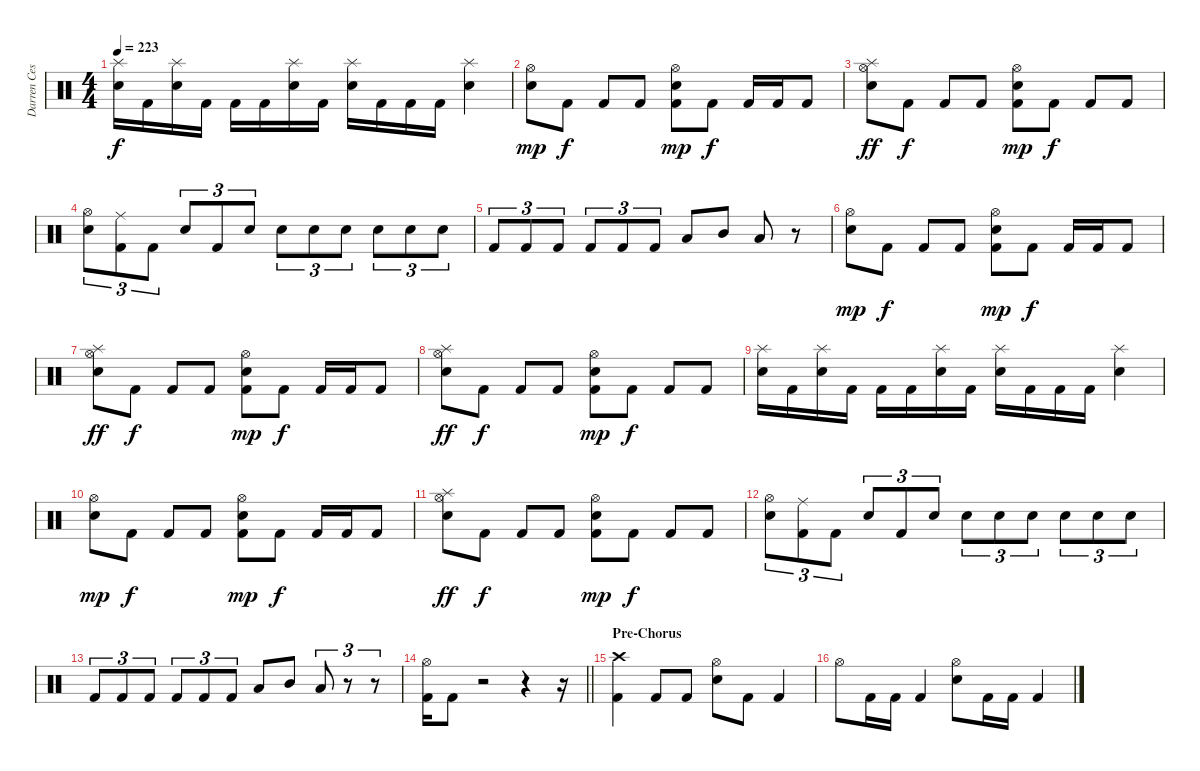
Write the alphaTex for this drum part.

\track ("Darren Cesca" "Darren Ces") {instrument percussion}
\staff {score}
\articulation defaults
\ts (4 4)
\tempo 223
\clef neutral
\ks c
("Splash (hit)" "Electric Snare (hit)").16{dy f} "Kick (hit) 2".16 ("Splash (hit)" "Electric Snare (hit)").16 "Kick (hit) 2".16 "Kick (hit) 2".16 "Kick (hit) 2".16 ("Splash (hit)" "Electric Snare (hit)").16 "Kick (hit) 2".16 ("Splash (hit)" "Electric Snare (hit)").16 "Kick (hit) 2".16 "Kick (hit) 2".16 "Kick (hit) 2".16 ("Splash (hit)" "Electric Snare (hit)").4 |
("Hi-Hat (open)" "Electric Snare (hit)").8{dy mp} "Kick (hit) 2".8{dy f} "Kick (hit) 2".8 "Kick (hit) 2".8 ("Hi-Hat (open)" "Electric Snare (hit)" "Kick (hit) 2").8{dy mp} "Kick (hit) 2".8{dy f} "Kick (hit) 2".16 "Kick (hit) 2".16 "Kick (hit) 2".8 |
("Hi-Hat (open)" "Splash (hit)" "Electric Snare (hit)").8{dy ff} "Kick (hit) 2".8{dy f} "Kick (hit) 2".8 "Kick (hit) 2".8 ("Hi-Hat (open)" "Electric Snare (hit)" "Kick (hit) 2").8{dy mp} "Kick (hit) 2".8{dy f} "Kick (hit) 2".8 "Kick (hit) 2".8 |
("Hi-Hat (open)" "Electric Snare (hit)").8{tu (3 2)} ("Ride (middle)" "Kick (hit) 2").8{tu (3 2)} "Kick (hit) 2".8{tu (3 2)} "Electric Snare (hit)".8{tu (3 2)} "Kick (hit) 2".8{tu (3 2)} "Electric Snare (hit)".8{tu (3 2)} "Electric Snare (hit)".8{tu (3 2)} "Electric Snare (hit)".8{tu (3 2)} "Electric Snare (hit)".8{tu (3 2)} "Electric Snare (hit)".8{tu (3 2)} "Electric Snare (hit)".8{tu (3 2)} "Electric Snare (hit)".8{tu (3 2)} |
"Kick (hit) 2".8{tu (3 2)} "Kick (hit) 2".8{tu (3 2)} "Kick (hit) 2".8{tu (3 2)} "Kick (hit) 2".8{tu (3 2)} "Kick (hit) 2".8{tu (3 2)} "Kick (hit) 2".8{tu (3 2)} "Low Tom (hit)".8 "Mid Tom (hit)".8 "Low Tom (hit)".8 r.8 |
("Hi-Hat (open)" "Electric Snare (hit)").8{dy mp} "Kick (hit) 2".8{dy f} "Kick (hit) 2".8 "Kick (hit) 2".8 ("Hi-Hat (open)" "Electric Snare (hit)" "Kick (hit) 2").8{dy mp} "Kick (hit) 2".8{dy f} "Kick (hit) 2".16 "Kick (hit) 2".16 "Kick (hit) 2".8 |
("Hi-Hat (open)" "Splash (hit)" "Electric Snare (hit)").8{dy ff} "Kick (hit) 2".8{dy f} "Kick (hit) 2".8 "Kick (hit) 2".8 ("Hi-Hat (open)" "Electric Snare (hit)" "Kick (hit) 2").8{dy mp} "Kick (hit) 2".8{dy f} "Kick (hit) 2".16 "Kick (hit) 2".16 "Kick (hit) 2".8 |
("Hi-Hat (open)" "Splash (hit)" "Electric Snare (hit)").8{dy ff} "Kick (hit) 2".8{dy f} "Kick (hit) 2".8 "Kick (hit) 2".8 ("Hi-Hat (open)" "Electric Snare (hit)" "Kick (hit) 2").8{dy mp} "Kick (hit) 2".8{dy f} "Kick (hit) 2".8 "Kick (hit) 2".8 |
("Splash (hit)" "Electric Snare (hit)").16 "Kick (hit) 2".16 ("Splash (hit)" "Electric Snare (hit)").16 "Kick (hit) 2".16 "Kick (hit) 2".16 "Kick (hit) 2".16 ("Splash (hit)" "Electric Snare (hit)").16 "Kick (hit) 2".16 ("Splash (hit)" "Electric Snare (hit)").16 "Kick (hit) 2".16 "Kick (hit) 2".16 "Kick (hit) 2".16 ("Splash (hit)" "Electric Snare (hit)").4 |
("Hi-Hat (open)" "Electric Snare (hit)").8{dy mp} "Kick (hit) 2".8{dy f} "Kick (hit) 2".8 "Kick (hit) 2".8 ("Hi-Hat (open)" "Electric Snare (hit)" "Kick (hit) 2").8{dy mp} "Kick (hit) 2".8{dy f} "Kick (hit) 2".16 "Kick (hit) 2".16 "Kick (hit) 2".8 |
("Hi-Hat (open)" "Splash (hit)" "Electric Snare (hit)").8{dy ff} "Kick (hit) 2".8{dy f} "Kick (hit) 2".8 "Kick (hit) 2".8 ("Hi-Hat (open)" "Electric Snare (hit)" "Kick (hit) 2").8{dy mp} "Kick (hit) 2".8{dy f} "Kick (hit) 2".8 "Kick (hit) 2".8 |
("Hi-Hat (open)" "Electric Snare (hit)").8{tu (3 2)} ("Ride (middle)" "Kick (hit) 2").8{tu (3 2)} "Kick (hit) 2".8{tu (3 2)} "Electric Snare (hit)".8{tu (3 2)} "Kick (hit) 2".8{tu (3 2)} "Electric Snare (hit)".8{tu (3 2)} "Electric Snare (hit)".8{tu (3 2)} "Electric Snare (hit)".8{tu (3 2)} "Electric Snare (hit)".8{tu (3 2)} "Electric Snare (hit)".8{tu (3 2)} "Electric Snare (hit)".8{tu (3 2)} "Electric Snare (hit)".8{tu (3 2)} |
"Kick (hit) 2".8{tu (3 2)} "Kick (hit) 2".8{tu (3 2)} "Kick (hit) 2".8{tu (3 2)} "Kick (hit) 2".8{tu (3 2)} "Kick (hit) 2".8{tu (3 2)} "Kick (hit) 2".8{tu (3 2)} "Low Tom (hit)".8 "Mid Tom (hit)".8 "Low Tom (hit)".8{tu (3 2)} r.8{tu (3 2)} r.8{tu (3 2)} |
\barLineRight lightlight
("Hi-Hat (open)" "Kick (hit) 2").16 "Kick (hit) 2".8 r.2 r.4 r.16 |
\section ("" "Pre-Chorus")
("Crash high (hit)" "Kick (hit) 2").4 "Kick (hit) 2".8 "Kick (hit) 2".8 ("Hi-Hat (open)" "Electric Snare (hit)").8 "Kick (hit) 2".8 "Kick (hit) 2".4 |
"Hi-Hat (open)".8 "Kick (hit) 2".16 "Kick (hit) 2".16 "Kick (hit) 2".4 ("Hi-Hat (open)" "Electric Snare (hit)").8 "Kick (hit) 2".16 "Kick (hit) 2".16 "Kick (hit) 2".4
